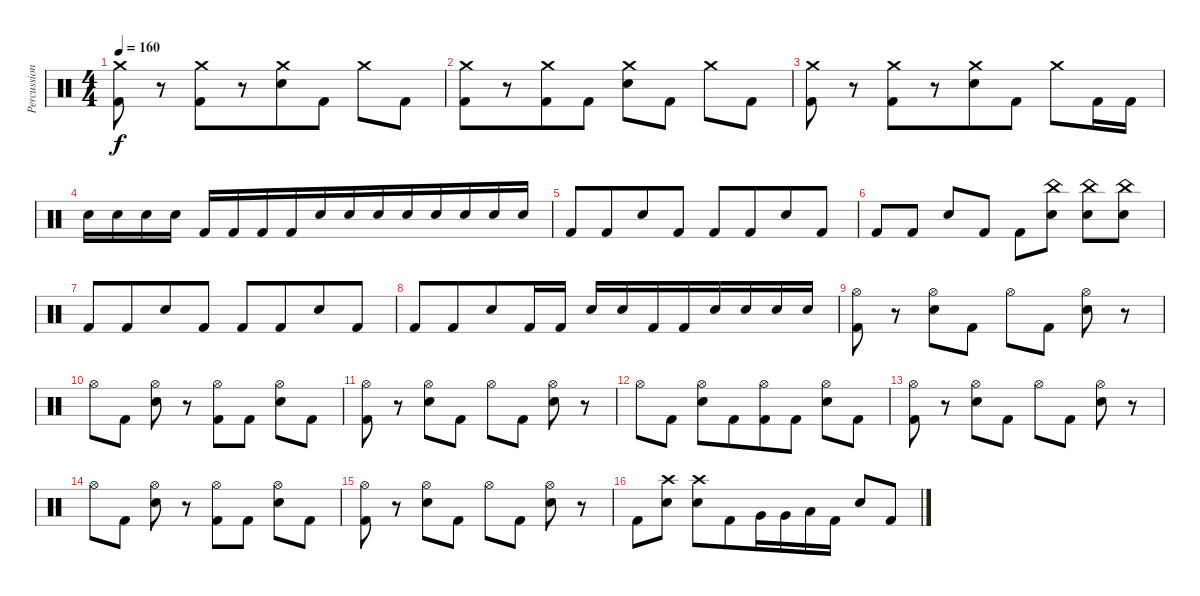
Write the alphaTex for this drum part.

\track ("Percussion" "Percussion") {instrument percussion}
\staff {score}
\articulation defaults
\ts (4 4)
\tempo 160
\clef neutral
\ks c
("Crash medium (hit)" "Kick (hit) 2").8{dy f} r.8 ("Crash medium (hit)" "Kick (hit) 2").8{beam merge} r.8 ("Crash medium (hit)" "Electric Snare (hit)").8{beam merge} "Kick (hit) 2".8 "Crash medium (hit)".8{beam merge} "Kick (hit) 2".8 |
("Crash medium (hit)" "Kick (hit) 2").8{beam merge} r.8 ("Crash medium (hit)" "Kick (hit) 2").8{beam merge} "Kick (hit) 2".8 ("Crash medium (hit)" "Electric Snare (hit)").8 "Kick (hit) 2".8 "Crash medium (hit)".8{beam merge} "Kick (hit) 2".8 |
("Crash medium (hit)" "Kick (hit) 2").8 r.8 ("Crash medium (hit)" "Kick (hit) 2").8{beam merge} r.8 ("Crash medium (hit)" "Electric Snare (hit)").8{beam merge} "Kick (hit) 2".8 "Crash medium (hit)".8{beam merge} "Kick (hit) 2".16 "Kick (hit) 2".16 |
"Electric Snare (hit)".16 "Electric Snare (hit)".16{beam merge} "Electric Snare (hit)".16 "Electric Snare (hit)".16 "Kick (hit) 2".16 "Kick (hit) 2".16{beam merge} "Kick (hit) 2".16{beam merge} "Kick (hit) 2".16{beam merge} "Electric Snare (hit)".16 "Electric Snare (hit)".16 "Electric Snare (hit)".16 "Electric Snare (hit)".16{beam merge} "Electric Snare (hit)".16{beam merge} "Electric Snare (hit)".16 "Electric Snare (hit)".16{beam merge} "Electric Snare (hit)".16 |
"Kick (hit) 2".8{beam merge} "Kick (hit) 2".8{beam merge} "Electric Snare (hit)".8 "Kick (hit) 2".8 "Kick (hit) 2".8 "Kick (hit) 2".8{beam merge} "Electric Snare (hit)".8{beam merge} "Kick (hit) 2".8 |
"Kick (hit) 2".8 "Kick (hit) 2".8 "Electric Snare (hit)".8{beam merge} "Kick (hit) 2".8 "Kick (hit) 2".8{beam merge} ("China (hit)" "Electric Snare (hit)").8 ("China (hit)" "Electric Snare (hit)").8 ("China (hit)" "Electric Snare (hit)").8 |
"Kick (hit) 2".8{beam merge} "Kick (hit) 2".8{beam merge} "Electric Snare (hit)".8 "Kick (hit) 2".8 "Kick (hit) 2".8 "Kick (hit) 2".8{beam merge} "Electric Snare (hit)".8{beam merge} "Kick (hit) 2".8 |
"Kick (hit) 2".8{beam merge} "Kick (hit) 2".8{beam merge} "Electric Snare (hit)".8 "Kick (hit) 2".16{beam merge} "Kick (hit) 2".16 "Electric Snare (hit)".16{beam merge} "Electric Snare (hit)".16 "Kick (hit) 2".16{beam merge} "Kick (hit) 2".16{beam merge} "Electric Snare (hit)".16{beam merge} "Electric Snare (hit)".16{beam merge} "Electric Snare (hit)".16 "Electric Snare (hit)".16 |
("Hi-Hat (open)" "Kick (hit) 2").8 r.8{beam merge} ("Hi-Hat (open)" "Electric Snare (hit)").8 "Kick (hit) 2".8 "Hi-Hat (open)".8 "Kick (hit) 2".8 ("Hi-Hat (open)" "Electric Snare (hit)").8{beam merge} r.8 |
"Hi-Hat (open)".8 "Kick (hit) 2".8 ("Hi-Hat (open)" "Electric Snare (hit)").8 r.8{beam merge} ("Hi-Hat (open)" "Kick (hit) 2").8{beam merge} "Kick (hit) 2".8 ("Hi-Hat (open)" "Electric Snare (hit)").8{beam merge} "Kick (hit) 2".8 |
("Hi-Hat (open)" "Kick (hit) 2").8 r.8{beam merge} ("Hi-Hat (open)" "Electric Snare (hit)").8 "Kick (hit) 2".8 "Hi-Hat (open)".8 "Kick (hit) 2".8 ("Hi-Hat (open)" "Electric Snare (hit)").8{beam merge} r.8 |
"Hi-Hat (open)".8 "Kick (hit) 2".8 ("Hi-Hat (open)" "Electric Snare (hit)").8 "Kick (hit) 2".8{beam merge} ("Hi-Hat (open)" "Kick (hit) 2").8{beam merge} "Kick (hit) 2".8 ("Hi-Hat (open)" "Electric Snare (hit)").8{beam merge} "Kick (hit) 2".8 |
("Hi-Hat (open)" "Kick (hit) 2").8 r.8{beam merge} ("Hi-Hat (open)" "Electric Snare (hit)").8 "Kick (hit) 2".8 "Hi-Hat (open)".8 "Kick (hit) 2".8 ("Hi-Hat (open)" "Electric Snare (hit)").8{beam merge} r.8 |
"Hi-Hat (open)".8 "Kick (hit) 2".8 ("Hi-Hat (open)" "Electric Snare (hit)").8 r.8{beam merge} ("Hi-Hat (open)" "Kick (hit) 2").8{beam merge} "Kick (hit) 2".8 ("Hi-Hat (open)" "Electric Snare (hit)").8{beam merge} "Kick (hit) 2".8 |
("Hi-Hat (open)" "Kick (hit) 2").8 r.8{beam merge} ("Hi-Hat (open)" "Electric Snare (hit)").8 "Kick (hit) 2".8 "Hi-Hat (open)".8 "Kick (hit) 2".8 ("Hi-Hat (open)" "Electric Snare (hit)").8{beam merge} r.8 |
"Kick (hit) 2".8 ("Crash high (hit)" "Electric Snare (hit)").8 ("Crash high (hit)" "Electric Snare (hit)").8 "Kick (hit) 2".8{beam merge} "Very Low Tom (hit)".16 "Very Low Tom (hit)".16{beam merge} "Low Floor Tom (hit)".16 "Kick (hit) 2".16 "Electric Snare (hit)".8 "Kick (hit) 2".8
